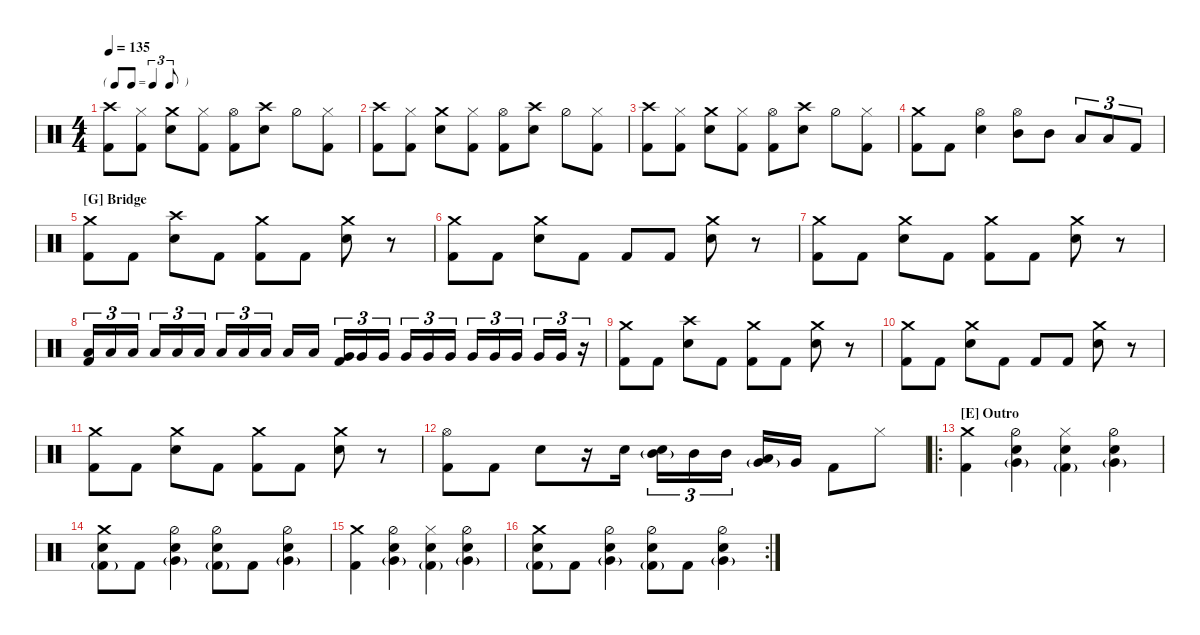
\defaultSystemsLayout 4
\hideDynamics
\bracketExtendMode nobrackets
\singleTrackTrackNamePolicy hidden
\multiTrackTrackNamePolicy hidden
\firstSystemTrackNameMode fullname
\firstSystemTrackNameOrientation horizontal
\otherSystemsTrackNameOrientation horizontal
\track ("Drum" "Drums") {instrument percussion}
\staff {score}
\articulation defaults
\ts (4 4)
\tf triplet8th
\scale
0.25
\tempo 135
\accidentals auto
\clef neutral
\ottava regular
\simile none
\scale
0.239163
\ks c
("Kick (hit) 2" "Crash high (hit)").8{dy f beam Down} ("Kick (hit) 2" "Hi-Hat (closed)").8{beam Down} ("Snare (hit) 2" "Crash medium (hit)").8{beam Down} ("Kick (hit) 2" "Hi-Hat (closed)").8{beam Down} ("Kick (hit) 2" "Hi-Hat (open)").8{beam Down} ("Snare (hit) 2" "Crash high (hit)").8{beam Down} "Hi-Hat (half)".8{beam Down} ("Kick (hit) 2" "Hi-Hat (closed)").8{beam Down} |
\scale
0.25
\scale
0.239163 ("Kick (hit) 2" "Crash high (hit)").8{beam Down} ("Kick (hit) 2" "Hi-Hat (closed)").8{beam Down} ("Snare (hit) 2" "Crash medium (hit)").8{beam Down} ("Kick (hit) 2" "Hi-Hat (closed)").8{beam Down} ("Kick (hit) 2" "Hi-Hat (open)").8{beam Down} ("Snare (hit) 2" "Crash high (hit)").8{beam Down} "Hi-Hat (half)".8{beam Down} ("Kick (hit) 2" "Hi-Hat (closed)").8{beam Down} |
\scale
0.25
\scale
0.239163 ("Kick (hit) 2" "Crash high (hit)").8{beam Down} ("Kick (hit) 2" "Hi-Hat (closed)").8{beam Down} ("Snare (hit) 2" "Crash medium (hit)").8{beam Down} ("Kick (hit) 2" "Hi-Hat (closed)").8{beam Down} ("Kick (hit) 2" "Hi-Hat (open)").8{beam Down} ("Snare (hit) 2" "Crash high (hit)").8{beam Down} "Hi-Hat (half)".8{beam Down} ("Kick (hit) 2" "Hi-Hat (closed)").8{beam Down} |
\scale
0.25
\scale
0.282511 ("Kick (hit) 2" "Crash medium (hit)").8{beam Down} "Kick (hit) 2".8{beam Down} ("Snare (hit) 2" "Hi-Hat (open)").4{beam Down} ("Mid Tom (hit)" "Hi-Hat (open)").8{beam Down} "Mid Tom (hit)".8{beam Down} "Low Tom (hit)".8{tu (3 2) beam Up} "Low Tom (hit)".8{tu (3 2) beam Up} "Kick (hit) 2".8{tu (3 2) beam Up} |
\section ("G" "Bridge")
\scale
0.268041
\scale
0.192308 ("Kick (hit) 2" "Crash medium (hit)").8{beam Down} "Kick (hit) 2".8{beam Down} ("Snare (hit) 2" "Crash high (hit)").8{beam Down} "Kick (hit) 2".8{beam Down} ("Kick (hit) 2" "Crash medium (hit)").8{beam Down} "Kick (hit) 2".8{beam Down} ("Snare (hit) 2" "Crash medium (hit)").8{beam Down} r.8{beam Down} |
\scale
0.346392
\scale
0.192308 ("Kick (hit) 2" "Crash medium (hit)").8{beam Down} "Kick (hit) 2".8{beam Down} ("Snare (hit) 2" "Crash medium (hit)").8{beam Down} "Kick (hit) 2".8{beam Down} "Kick (hit) 2".8{beam Up} "Kick (hit) 2".8{beam Up} ("Snare (hit) 2" "Crash medium (hit)").8{beam Down} r.8{beam Down} |
\scale
0.25567
\scale
0.192308 ("Kick (hit) 2" "Crash medium (hit)").8{beam Down} "Kick (hit) 2".8{beam Down} ("Snare (hit) 2" "Crash medium (hit)").8{beam Down} "Kick (hit) 2".8{beam Down} ("Kick (hit) 2" "Crash medium (hit)").8{beam Down} "Kick (hit) 2".8{beam Down} ("Snare (hit) 2" "Crash medium (hit)").8{beam Down} r.8{beam Down} |
\scale
0.129897
\scale
0.423077 ("Low Tom (hit)" "Kick (hit) 2").16{tu (3 2) dy fff beam Up} "Low Tom (hit)".16{tu (3 2) beam Up} "Low Tom (hit)".16{tu (3 2) beam Up} "Low Tom (hit)".16{tu (3 2) beam Up} "Low Tom (hit)".16{tu (3 2) beam Up} "Low Tom (hit)".16{tu (3 2) beam Up} "Low Tom (hit)".16{tu (3 2) beam Up} "Low Tom (hit)".16{tu (3 2) beam Up} "Low Tom (hit)".16{tu (3 2) beam Up} "Low Tom (hit)".16{beam Up} "Low Tom (hit)".16{beam Up} ("Very Low Tom (hit)" "Kick (hit) 2").16{tu (3 2) beam Up} "Very Low Tom (hit)".16{tu (3 2) beam Up} "Very Low Tom (hit)".16{tu (3 2) beam Up} "Very Low Tom (hit)".16{tu (3 2) beam Up} "Very Low Tom (hit)".16{tu (3 2) beam Up} "Very Low Tom (hit)".16{tu (3 2) beam Up} "Very Low Tom (hit)".16{tu (3 2) beam Up} "Very Low Tom (hit)".16{tu (3 2) beam Up} "Very Low Tom (hit)".16{tu (3 2) beam Up} "Very Low Tom (hit)".16{tu (3 2) beam Up} "Very Low Tom (hit)".16{tu (3 2) beam Up} r.16{tu (3 2) beam Up} |
\scale
0.238095
\scale
0.184941 ("Kick (hit) 2" "Crash medium (hit)").8{dy f beam Down} "Kick (hit) 2".8{beam Down} ("Snare (hit) 2" "Crash high (hit)").8{beam Down} "Kick (hit) 2".8{beam Down} ("Kick (hit) 2" "Crash medium (hit)").8{beam Down} "Kick (hit) 2".8{beam Down} ("Snare (hit) 2" "Crash medium (hit)").8{beam Down} r.8{beam Down} |
\scale
0.307692
\scale
0.184941 ("Kick (hit) 2" "Crash medium (hit)").8{beam Down} "Kick (hit) 2".8{beam Down} ("Snare (hit) 2" "Crash medium (hit)").8{beam Down} "Kick (hit) 2".8{beam Down} "Kick (hit) 2".8{beam Up} "Kick (hit) 2".8{beam Up} ("Snare (hit) 2" "Crash medium (hit)").8{beam Down} r.8{beam Down} |
\scale
0.227106
\scale
0.184941 ("Kick (hit) 2" "Crash medium (hit)").8{beam Down} "Kick (hit) 2".8{beam Down} ("Snare (hit) 2" "Crash medium (hit)").8{beam Down} "Kick (hit) 2".8{beam Down} ("Kick (hit) 2" "Crash medium (hit)").8{beam Down} "Kick (hit) 2".8{beam Down} ("Snare (hit) 2" "Crash medium (hit)").8{beam Down} r.8{beam Down} |
\scale
0.227106
\scale
0.445178 ("Kick (hit) 2" "Hi-Hat (open)").8{dy ff beam Down} "Kick (hit) 2".8{beam Down} "Snare (hit) 2".8{beam Down} r.16{beam Down} "Snare (hit) 2".16{beam Down} ("Snare (hit) 2" "Mid Tom (hit)"{g}).16{tu (3 2) dy fff beam Down} "Mid Tom (hit)".16{tu (3 2) beam Down} "Mid Tom (hit)".16{tu (3 2) beam Down} ("Low Tom (hit)" "Very Low Tom (hit)"{g}).16{beam Up} "Very Low Tom (hit)".16{beam Up} "Kick (hit) 2".8{beam Down} "Hi-Hat (closed)".8{beam Down} |
\ro
\section ("E" "Outro")
\scale
0.25
\scale
0.230769 ("Kick (hit) 2" "Crash medium (hit)").4{dy f beam Down} ("Snare (hit) 2" "Very Low Tom (hit)"{g} "Hi-Hat (half)").4{beam Down} ("Snare (hit) 2" "Hi-Hat (closed)" "Kick (hit) 2"{g}).4{beam Down} ("Snare (hit) 2" "Hi-Hat (half)" "Very Low Tom (hit)"{g}).4{beam Down} |
\scale
0.25
\scale
0.269231 ("Snare (hit) 2" "Kick (hit) 2"{g} "Crash medium (hit)").8{beam Down} "Kick (hit) 2".8{beam Down} ("Snare (hit) 2" "Very Low Tom (hit)"{g} "Hi-Hat (half)").4{beam Down} ("Snare (hit) 2" "Hi-Hat (half)" "Kick (hit) 2"{g}).8{beam Down} "Kick (hit) 2".8{beam Down} ("Snare (hit) 2" "Hi-Hat (half)" "Very Low Tom (hit)"{g}).4{beam Down} |
\scale
0.25
\scale
0.230769 ("Kick (hit) 2" "Crash medium (hit)").4{beam Down} ("Snare (hit) 2" "Very Low Tom (hit)"{g} "Hi-Hat (half)").4{beam Down} ("Snare (hit) 2" "Hi-Hat (closed)" "Kick (hit) 2"{g}).4{beam Down} ("Snare (hit) 2" "Hi-Hat (half)" "Very Low Tom (hit)"{g}).4{beam Down} |
\rc 2
\scale
0.269231 ("Snare (hit) 2" "Kick (hit) 2"{g} "Crash medium (hit)").8{beam Down} "Kick (hit) 2".8{beam Down} ("Snare (hit) 2" "Very Low Tom (hit)"{g} "Hi-Hat (half)").4{beam Down} ("Snare (hit) 2" "Hi-Hat (half)" "Kick (hit) 2"{g}).8{beam Down} "Kick (hit) 2".8{beam Down} ("Snare (hit) 2" "Hi-Hat (half)" "Very Low Tom (hit)"{g}).4{beam Down}
